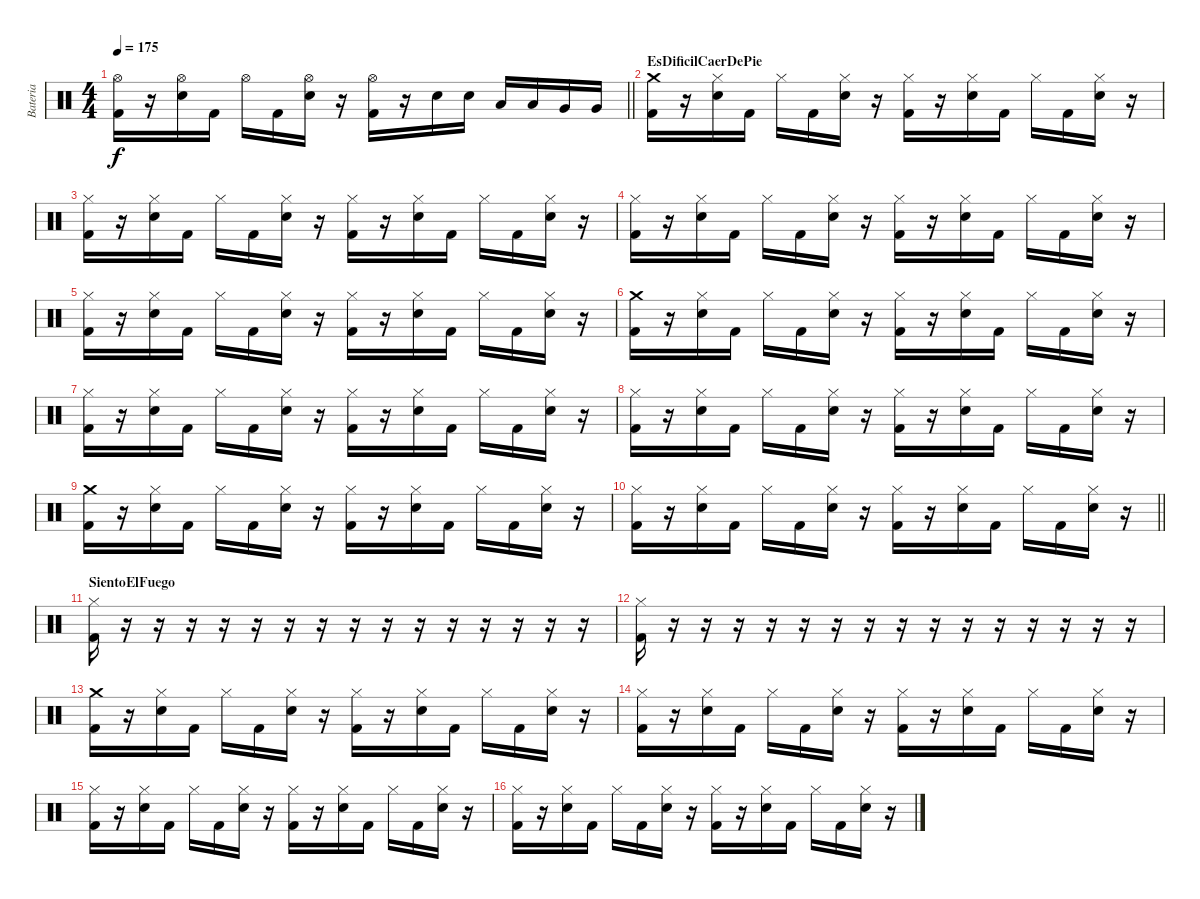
\track ("Bateria" "Bateria") {instrument percussion}
\staff {score}
\articulation defaults
\ts (4 4)
\tempo 175
\clef neutral
\barLineRight lightlight
\ks c
("Hi-Hat (open)" "Kick (hit) 2").16{dy f} r.16 ("Hi-Hat (open)" "Snare (hit) 2").16 "Kick (hit) 2".16 "Hi-Hat (open)".16 "Kick (hit) 2".16 ("Hi-Hat (open)" "Snare (hit) 2").16 r.16 ("Hi-Hat (open)" "Kick (hit) 2").16 r.16 "Snare (hit) 2".16 "Snare (hit) 2".16 "Low Tom (hit)".16 "Low Tom (hit)".16 "Very Low Tom (hit)".16 "Very Low Tom (hit)".16 |
\section ("" "EsDificilCaerDePie")
("Crash medium (hit)" "Kick (hit) 2").16 r.16 ("Hi-Hat (closed)" "Snare (hit) 2").16 "Kick (hit) 2".16 "Hi-Hat (closed)".16 "Kick (hit) 2".16 ("Hi-Hat (closed)" "Snare (hit) 2").16 r.16 ("Hi-Hat (closed)" "Kick (hit) 2").16 r.16 ("Hi-Hat (closed)" "Snare (hit) 2").16 "Kick (hit) 2".16 "Hi-Hat (closed)".16 "Kick (hit) 2".16 ("Hi-Hat (closed)" "Snare (hit) 2").16 r.16 |
("Hi-Hat (closed)" "Kick (hit) 2").16 r.16 ("Hi-Hat (closed)" "Snare (hit) 2").16 "Kick (hit) 2".16 "Hi-Hat (closed)".16 "Kick (hit) 2".16 ("Hi-Hat (closed)" "Snare (hit) 2").16 r.16 ("Hi-Hat (closed)" "Kick (hit) 2").16 r.16 ("Hi-Hat (closed)" "Snare (hit) 2").16 "Kick (hit) 2".16 "Hi-Hat (closed)".16 "Kick (hit) 2".16 ("Hi-Hat (closed)" "Snare (hit) 2").16 r.16 |
("Hi-Hat (closed)" "Kick (hit) 2").16 r.16 ("Hi-Hat (closed)" "Snare (hit) 2").16 "Kick (hit) 2".16 "Hi-Hat (closed)".16 "Kick (hit) 2".16 ("Hi-Hat (closed)" "Snare (hit) 2").16 r.16 ("Hi-Hat (closed)" "Kick (hit) 2").16 r.16 ("Hi-Hat (closed)" "Snare (hit) 2").16 "Kick (hit) 2".16 "Hi-Hat (closed)".16 "Kick (hit) 2".16 ("Hi-Hat (closed)" "Snare (hit) 2").16 r.16 |
("Hi-Hat (closed)" "Kick (hit) 2").16 r.16 ("Hi-Hat (closed)" "Snare (hit) 2").16 "Kick (hit) 2".16 "Hi-Hat (closed)".16 "Kick (hit) 2".16 ("Hi-Hat (closed)" "Snare (hit) 2").16 r.16 ("Hi-Hat (closed)" "Kick (hit) 2").16 r.16 ("Hi-Hat (closed)" "Snare (hit) 2").16 "Kick (hit) 2".16 "Hi-Hat (closed)".16 "Kick (hit) 2".16 ("Hi-Hat (closed)" "Snare (hit) 2").16 r.16 |
("Crash medium (hit)" "Kick (hit) 2").16 r.16 ("Hi-Hat (closed)" "Snare (hit) 2").16 "Kick (hit) 2".16 "Hi-Hat (closed)".16 "Kick (hit) 2".16 ("Hi-Hat (closed)" "Snare (hit) 2").16 r.16 ("Hi-Hat (closed)" "Kick (hit) 2").16 r.16 ("Hi-Hat (closed)" "Snare (hit) 2").16 "Kick (hit) 2".16 "Hi-Hat (closed)".16 "Kick (hit) 2".16 ("Hi-Hat (closed)" "Snare (hit) 2").16 r.16 |
("Hi-Hat (closed)" "Kick (hit) 2").16 r.16 ("Hi-Hat (closed)" "Snare (hit) 2").16 "Kick (hit) 2".16 "Hi-Hat (closed)".16 "Kick (hit) 2".16 ("Hi-Hat (closed)" "Snare (hit) 2").16 r.16 ("Hi-Hat (closed)" "Kick (hit) 2").16 r.16 ("Hi-Hat (closed)" "Snare (hit) 2").16 "Kick (hit) 2".16 "Hi-Hat (closed)".16 "Kick (hit) 2".16 ("Hi-Hat (closed)" "Snare (hit) 2").16 r.16 |
("Hi-Hat (closed)" "Kick (hit) 2").16 r.16 ("Hi-Hat (closed)" "Snare (hit) 2").16 "Kick (hit) 2".16 "Hi-Hat (closed)".16 "Kick (hit) 2".16 ("Hi-Hat (closed)" "Snare (hit) 2").16 r.16 ("Hi-Hat (closed)" "Kick (hit) 2").16 r.16 ("Hi-Hat (closed)" "Snare (hit) 2").16 "Kick (hit) 2".16 "Hi-Hat (closed)".16 "Kick (hit) 2".16 ("Hi-Hat (closed)" "Snare (hit) 2").16 r.16 |
("Crash medium (hit)" "Kick (hit) 2").16 r.16 ("Hi-Hat (closed)" "Snare (hit) 2").16 "Kick (hit) 2".16 "Hi-Hat (closed)".16 "Kick (hit) 2".16 ("Hi-Hat (closed)" "Snare (hit) 2").16 r.16 ("Hi-Hat (closed)" "Kick (hit) 2").16 r.16 ("Hi-Hat (closed)" "Snare (hit) 2").16 "Kick (hit) 2".16 "Hi-Hat (closed)".16 "Kick (hit) 2".16 ("Hi-Hat (closed)" "Snare (hit) 2").16 r.16 |
\barLineRight lightlight
("Hi-Hat (closed)" "Kick (hit) 2").16 r.16 ("Hi-Hat (closed)" "Snare (hit) 2").16 "Kick (hit) 2".16 "Hi-Hat (closed)".16 "Kick (hit) 2".16 ("Hi-Hat (closed)" "Snare (hit) 2").16 r.16 ("Hi-Hat (closed)" "Kick (hit) 2").16 r.16 ("Hi-Hat (closed)" "Snare (hit) 2").16 "Kick (hit) 2".16 "Hi-Hat (closed)".16 "Kick (hit) 2".16 ("Hi-Hat (closed)" "Snare (hit) 2").16 r.16 |
\section ("" "SientoElFuego")
("Hi-Hat (closed)" "Kick (hit) 2").16 r.16 r.16 r.16 r.16 r.16 r.16 r.16 r.16 r.16 r.16 r.16 r.16 r.16 r.16 r.16 |
("Hi-Hat (closed)" "Kick (hit) 2").16 r.16 r.16 r.16 r.16 r.16 r.16 r.16 r.16 r.16 r.16 r.16 r.16 r.16 r.16 r.16 |
("Crash medium (hit)" "Kick (hit) 2").16 r.16 ("Hi-Hat (closed)" "Snare (hit) 2").16 "Kick (hit) 2".16 "Hi-Hat (closed)".16 "Kick (hit) 2".16 ("Hi-Hat (closed)" "Snare (hit) 2").16 r.16 ("Hi-Hat (closed)" "Kick (hit) 2").16 r.16 ("Hi-Hat (closed)" "Snare (hit) 2").16 "Kick (hit) 2".16 "Hi-Hat (closed)".16 "Kick (hit) 2".16 ("Hi-Hat (closed)" "Snare (hit) 2").16 r.16 |
("Hi-Hat (closed)" "Kick (hit) 2").16 r.16 ("Hi-Hat (closed)" "Snare (hit) 2").16 "Kick (hit) 2".16 "Hi-Hat (closed)".16 "Kick (hit) 2".16 ("Hi-Hat (closed)" "Snare (hit) 2").16 r.16 ("Hi-Hat (closed)" "Kick (hit) 2").16 r.16 ("Hi-Hat (closed)" "Snare (hit) 2").16 "Kick (hit) 2".16 "Hi-Hat (closed)".16 "Kick (hit) 2".16 ("Hi-Hat (closed)" "Snare (hit) 2").16 r.16 |
("Hi-Hat (closed)" "Kick (hit) 2").16 r.16 ("Hi-Hat (closed)" "Snare (hit) 2").16 "Kick (hit) 2".16 "Hi-Hat (closed)".16 "Kick (hit) 2".16 ("Hi-Hat (closed)" "Snare (hit) 2").16 r.16 ("Hi-Hat (closed)" "Kick (hit) 2").16 r.16 ("Hi-Hat (closed)" "Snare (hit) 2").16 "Kick (hit) 2".16 "Hi-Hat (closed)".16 "Kick (hit) 2".16 ("Hi-Hat (closed)" "Snare (hit) 2").16 r.16 |
("Hi-Hat (closed)" "Kick (hit) 2").16 r.16 ("Hi-Hat (closed)" "Snare (hit) 2").16 "Kick (hit) 2".16 "Hi-Hat (closed)".16 "Kick (hit) 2".16 ("Hi-Hat (closed)" "Snare (hit) 2").16 r.16 ("Hi-Hat (closed)" "Kick (hit) 2").16 r.16 ("Hi-Hat (closed)" "Snare (hit) 2").16 "Kick (hit) 2".16 "Hi-Hat (closed)".16 "Kick (hit) 2".16 ("Hi-Hat (closed)" "Snare (hit) 2").16 r.16
